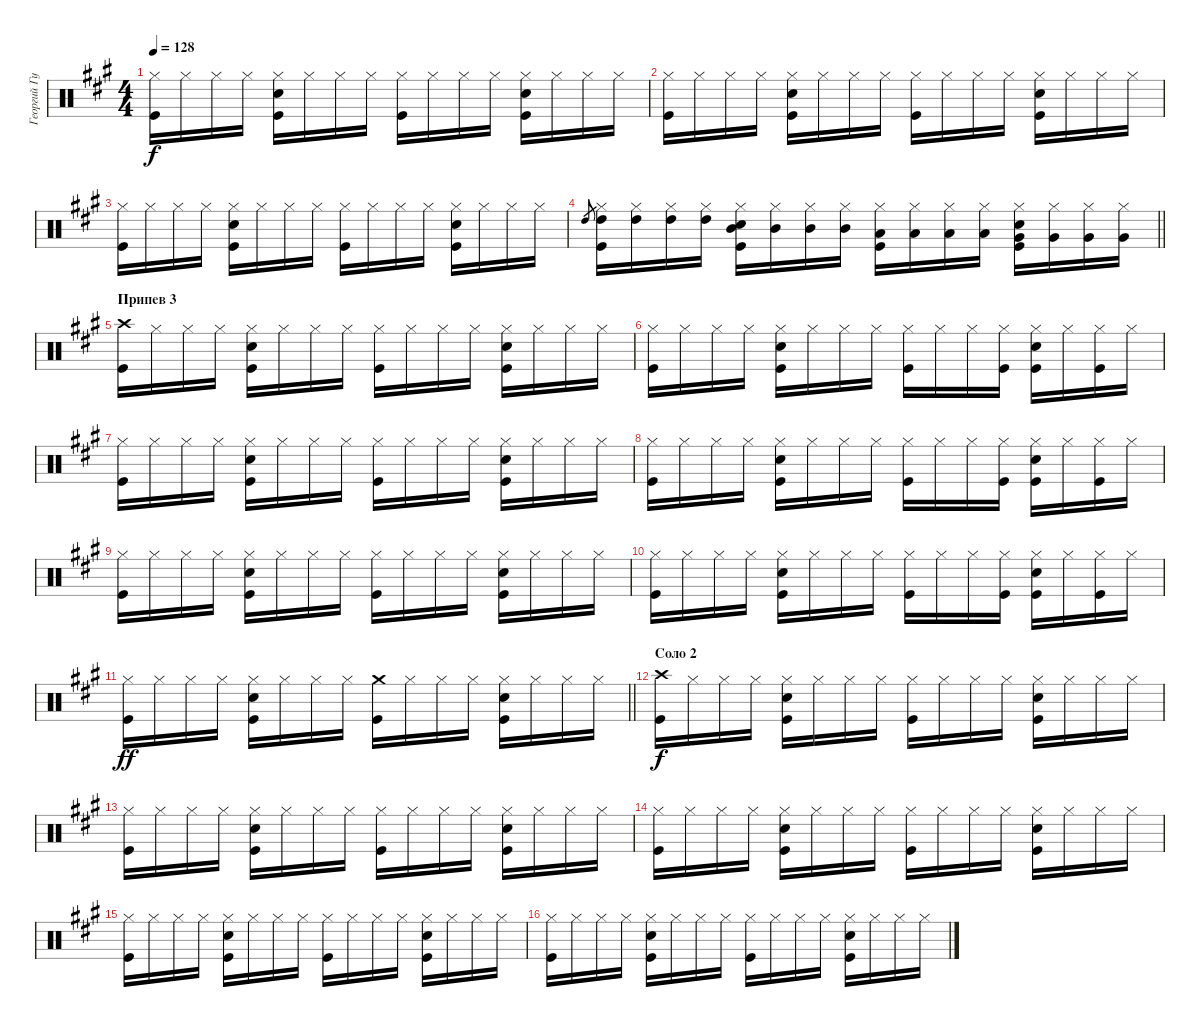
\track ("Георгий Гурьянов" "Георгий Гу") {instrument percussion}
\staff {score}
\articulation defaults
\ts (4 4)
\tempo 128
\clef neutral
\ks f#minor
("Hi-Hat (closed)" "Kick (hit)").16{dy f} "Hi-Hat (closed)".16 "Hi-Hat (closed)".16 "Hi-Hat (closed)".16 ("Hi-Hat (closed)" "Snare (hit) 2" "Kick (hit)").16 "Hi-Hat (closed)".16 "Hi-Hat (closed)".16 "Hi-Hat (closed)".16 ("Hi-Hat (closed)" "Kick (hit)").16 "Hi-Hat (closed)".16 "Hi-Hat (closed)".16 "Hi-Hat (closed)".16 ("Hi-Hat (closed)" "Snare (hit) 2" "Kick (hit)").16 "Hi-Hat (closed)".16 "Hi-Hat (closed)".16 "Hi-Hat (closed)".16 |
("Hi-Hat (closed)" "Kick (hit)").16 "Hi-Hat (closed)".16 "Hi-Hat (closed)".16 "Hi-Hat (closed)".16 ("Hi-Hat (closed)" "Snare (hit) 2" "Kick (hit)").16 "Hi-Hat (closed)".16 "Hi-Hat (closed)".16 "Hi-Hat (closed)".16 ("Hi-Hat (closed)" "Kick (hit)").16 "Hi-Hat (closed)".16 "Hi-Hat (closed)".16 "Hi-Hat (closed)".16 ("Hi-Hat (closed)" "Snare (hit) 2" "Kick (hit)").16 "Hi-Hat (closed)".16 "Hi-Hat (closed)".16 "Hi-Hat (closed)".16 |
("Hi-Hat (closed)" "Kick (hit)").16 "Hi-Hat (closed)".16 "Hi-Hat (closed)".16 "Hi-Hat (closed)".16 ("Hi-Hat (closed)" "Snare (hit) 2" "Kick (hit)").16 "Hi-Hat (closed)".16 "Hi-Hat (closed)".16 "Hi-Hat (closed)".16 ("Hi-Hat (closed)" "Kick (hit)").16 "Hi-Hat (closed)".16 "Hi-Hat (closed)".16 "Hi-Hat (closed)".16 ("Hi-Hat (closed)" "Snare (hit) 2" "Kick (hit)").16 "Hi-Hat (closed)".16 "Hi-Hat (closed)".16 "Hi-Hat (closed)".16 |
\barLineRight lightlight "High Tom (hit)".8{gr}
("Hi-Hat (closed)" "Kick (hit)" "High Tom (hit)").16 ("Hi-Hat (closed)" "High Tom (hit)").16 ("Hi-Hat (closed)" "High Tom (hit)").16 ("Hi-Hat (closed)" "High Tom (hit)").16 ("Hi-Hat (closed)" "Snare (hit) 2" "Kick (hit)" "Mid Tom (hit)").16 ("Hi-Hat (closed)" "Mid Tom (hit)").16 ("Hi-Hat (closed)" "Mid Tom (hit)").16 ("Hi-Hat (closed)" "Mid Tom (hit)").16 ("Hi-Hat (closed)" "Kick (hit)" "Low Tom (hit)").16 ("Hi-Hat (closed)" "Low Tom (hit)").16 ("Hi-Hat (closed)" "Low Tom (hit)").16 ("Hi-Hat (closed)" "Low Tom (hit)").16 ("Hi-Hat (closed)" "Snare (hit) 2" "Kick (hit)" "Very Low Tom (hit)").16 ("Hi-Hat (closed)" "Very Low Tom (hit)").16 ("Hi-Hat (closed)" "Very Low Tom (hit)").16 ("Hi-Hat (closed)" "Very Low Tom (hit)").16 |
\section ("" "Припев 3")
("Kick (hit)" "Crash high (hit)").16 "Hi-Hat (closed)".16 "Hi-Hat (closed)".16 "Hi-Hat (closed)".16 ("Hi-Hat (closed)" "Snare (hit) 2" "Kick (hit)").16 "Hi-Hat (closed)".16 "Hi-Hat (closed)".16 "Hi-Hat (closed)".16 ("Hi-Hat (closed)" "Kick (hit)").16 "Hi-Hat (closed)".16 "Hi-Hat (closed)".16 "Hi-Hat (closed)".16 ("Hi-Hat (closed)" "Snare (hit) 2" "Kick (hit)").16 "Hi-Hat (closed)".16 "Hi-Hat (closed)".16 "Hi-Hat (closed)".16 |
("Hi-Hat (closed)" "Kick (hit)").16 "Hi-Hat (closed)".16 "Hi-Hat (closed)".16 "Hi-Hat (closed)".16 ("Hi-Hat (closed)" "Snare (hit) 2" "Kick (hit)").16 "Hi-Hat (closed)".16 "Hi-Hat (closed)".16 "Hi-Hat (closed)".16 ("Hi-Hat (closed)" "Kick (hit)").16 "Hi-Hat (closed)".16 "Hi-Hat (closed)".16 ("Hi-Hat (closed)" "Kick (hit)").16 ("Hi-Hat (closed)" "Snare (hit) 2" "Kick (hit)").16 "Hi-Hat (closed)".16 ("Hi-Hat (closed)" "Kick (hit)").16 "Hi-Hat (closed)".16 |
("Hi-Hat (closed)" "Kick (hit)").16 "Hi-Hat (closed)".16 "Hi-Hat (closed)".16 "Hi-Hat (closed)".16 ("Hi-Hat (closed)" "Snare (hit) 2" "Kick (hit)").16 "Hi-Hat (closed)".16 "Hi-Hat (closed)".16 "Hi-Hat (closed)".16 ("Hi-Hat (closed)" "Kick (hit)").16 "Hi-Hat (closed)".16 "Hi-Hat (closed)".16 "Hi-Hat (closed)".16 ("Hi-Hat (closed)" "Snare (hit) 2" "Kick (hit)").16 "Hi-Hat (closed)".16 "Hi-Hat (closed)".16 "Hi-Hat (closed)".16 |
("Hi-Hat (closed)" "Kick (hit)").16 "Hi-Hat (closed)".16 "Hi-Hat (closed)".16 "Hi-Hat (closed)".16 ("Hi-Hat (closed)" "Snare (hit) 2" "Kick (hit)").16 "Hi-Hat (closed)".16 "Hi-Hat (closed)".16 "Hi-Hat (closed)".16 ("Hi-Hat (closed)" "Kick (hit)").16 "Hi-Hat (closed)".16 "Hi-Hat (closed)".16 ("Hi-Hat (closed)" "Kick (hit)").16 ("Hi-Hat (closed)" "Snare (hit) 2" "Kick (hit)").16 "Hi-Hat (closed)".16 ("Hi-Hat (closed)" "Kick (hit)").16 "Hi-Hat (closed)".16 |
("Hi-Hat (closed)" "Kick (hit)").16 "Hi-Hat (closed)".16 "Hi-Hat (closed)".16 "Hi-Hat (closed)".16 ("Hi-Hat (closed)" "Snare (hit) 2" "Kick (hit)").16 "Hi-Hat (closed)".16 "Hi-Hat (closed)".16 "Hi-Hat (closed)".16 ("Hi-Hat (closed)" "Kick (hit)").16 "Hi-Hat (closed)".16 "Hi-Hat (closed)".16 "Hi-Hat (closed)".16 ("Hi-Hat (closed)" "Snare (hit) 2" "Kick (hit)").16 "Hi-Hat (closed)".16 "Hi-Hat (closed)".16 "Hi-Hat (closed)".16 |
("Hi-Hat (closed)" "Kick (hit)").16 "Hi-Hat (closed)".16 "Hi-Hat (closed)".16 "Hi-Hat (closed)".16 ("Hi-Hat (closed)" "Snare (hit) 2" "Kick (hit)").16 "Hi-Hat (closed)".16 "Hi-Hat (closed)".16 "Hi-Hat (closed)".16 ("Hi-Hat (closed)" "Kick (hit)").16 "Hi-Hat (closed)".16 "Hi-Hat (closed)".16 ("Hi-Hat (closed)" "Kick (hit)").16 ("Hi-Hat (closed)" "Snare (hit) 2" "Kick (hit)").16 "Hi-Hat (closed)".16 ("Hi-Hat (closed)" "Kick (hit)").16 "Hi-Hat (closed)".16 |
\barLineRight lightlight
("Hi-Hat (closed)" "Kick (hit)").16{dy ff} "Hi-Hat (closed)".16 "Hi-Hat (closed)".16 "Hi-Hat (closed)".16 ("Hi-Hat (closed)" "Snare (hit) 2" "Kick (hit)").16 "Hi-Hat (closed)".16 "Hi-Hat (closed)".16 "Hi-Hat (closed)".16 ("Crash medium (hit)" "Kick (hit)").16 "Hi-Hat (closed)".16 "Hi-Hat (closed)".16 "Hi-Hat (closed)".16 ("Hi-Hat (closed)" "Snare (hit) 2" "Kick (hit)").16 "Hi-Hat (closed)".16 "Hi-Hat (closed)".16 "Hi-Hat (closed)".16 |
\section ("" "Соло 2")
("Kick (hit)" "Crash high (hit)").16{dy f} "Hi-Hat (closed)".16 "Hi-Hat (closed)".16 "Hi-Hat (closed)".16 ("Hi-Hat (closed)" "Snare (hit) 2" "Kick (hit)").16 "Hi-Hat (closed)".16 "Hi-Hat (closed)".16 "Hi-Hat (closed)".16 ("Hi-Hat (closed)" "Kick (hit)").16 "Hi-Hat (closed)".16 "Hi-Hat (closed)".16 "Hi-Hat (closed)".16 ("Hi-Hat (closed)" "Snare (hit) 2" "Kick (hit)").16 "Hi-Hat (closed)".16 "Hi-Hat (closed)".16 "Hi-Hat (closed)".16 |
("Hi-Hat (closed)" "Kick (hit)").16 "Hi-Hat (closed)".16 "Hi-Hat (closed)".16 "Hi-Hat (closed)".16 ("Hi-Hat (closed)" "Snare (hit) 2" "Kick (hit)").16 "Hi-Hat (closed)".16 "Hi-Hat (closed)".16 "Hi-Hat (closed)".16 ("Hi-Hat (closed)" "Kick (hit)").16 "Hi-Hat (closed)".16 "Hi-Hat (closed)".16 "Hi-Hat (closed)".16 ("Hi-Hat (closed)" "Snare (hit) 2" "Kick (hit)").16 "Hi-Hat (closed)".16 "Hi-Hat (closed)".16 "Hi-Hat (closed)".16 |
("Hi-Hat (closed)" "Kick (hit)").16 "Hi-Hat (closed)".16 "Hi-Hat (closed)".16 "Hi-Hat (closed)".16 ("Hi-Hat (closed)" "Snare (hit) 2" "Kick (hit)").16 "Hi-Hat (closed)".16 "Hi-Hat (closed)".16 "Hi-Hat (closed)".16 ("Hi-Hat (closed)" "Kick (hit)").16 "Hi-Hat (closed)".16 "Hi-Hat (closed)".16 "Hi-Hat (closed)".16 ("Hi-Hat (closed)" "Snare (hit) 2" "Kick (hit)").16 "Hi-Hat (closed)".16 "Hi-Hat (closed)".16 "Hi-Hat (closed)".16 |
("Hi-Hat (closed)" "Kick (hit)").16 "Hi-Hat (closed)".16 "Hi-Hat (closed)".16 "Hi-Hat (closed)".16 ("Hi-Hat (closed)" "Snare (hit) 2" "Kick (hit)").16 "Hi-Hat (closed)".16 "Hi-Hat (closed)".16 "Hi-Hat (closed)".16 ("Hi-Hat (closed)" "Kick (hit)").16 "Hi-Hat (closed)".16 "Hi-Hat (closed)".16 "Hi-Hat (closed)".16 ("Hi-Hat (closed)" "Snare (hit) 2" "Kick (hit)").16 "Hi-Hat (closed)".16 "Hi-Hat (closed)".16 "Hi-Hat (closed)".16 |
("Hi-Hat (closed)" "Kick (hit)").16 "Hi-Hat (closed)".16 "Hi-Hat (closed)".16 "Hi-Hat (closed)".16 ("Hi-Hat (closed)" "Snare (hit) 2" "Kick (hit)").16 "Hi-Hat (closed)".16 "Hi-Hat (closed)".16 "Hi-Hat (closed)".16 ("Hi-Hat (closed)" "Kick (hit)").16 "Hi-Hat (closed)".16 "Hi-Hat (closed)".16 "Hi-Hat (closed)".16 ("Hi-Hat (closed)" "Snare (hit) 2" "Kick (hit)").16 "Hi-Hat (closed)".16 "Hi-Hat (closed)".16 "Hi-Hat (closed)".16
